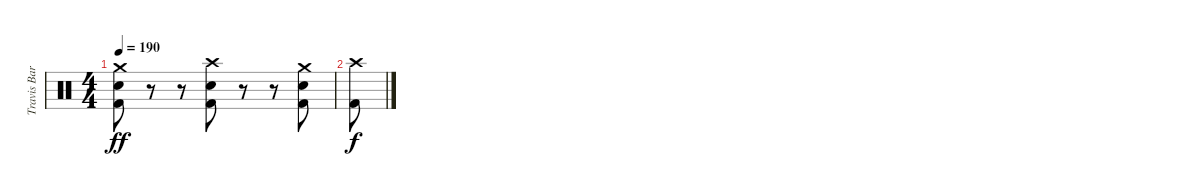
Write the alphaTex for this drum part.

\track ("Travis Barker - Drums" "Travis Bar") {instrument percussion}
\staff {score}
\articulation defaults
\ts (4 4)
\tempo 190
\clef neutral
\ks c
("Crash medium (hit)" "Electric Snare (hit)" "Kick (hit) 2").8{dy ff} r.8 r.8 ("Crash high (hit)" "Electric Snare (hit)" "Kick (hit) 2").8 r.8 r.8 ("Crash medium (hit)" "Electric Snare (hit)" "Kick (hit) 2").8 |
("Crash high (hit)" "Kick (hit) 2").8{dy f}
